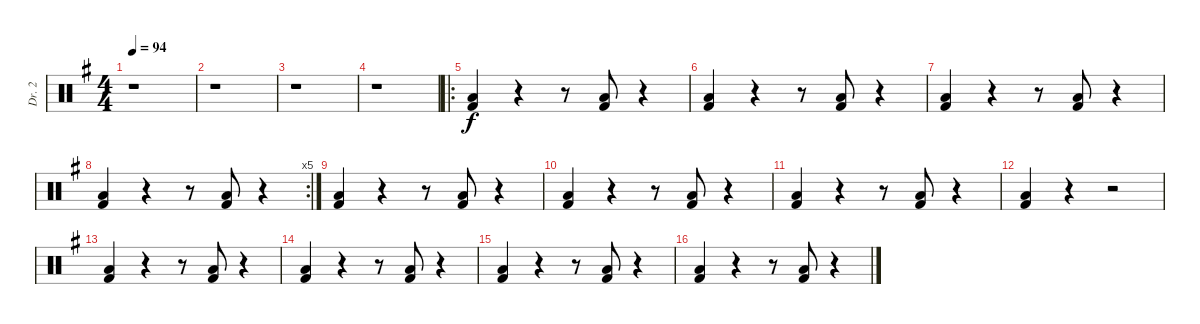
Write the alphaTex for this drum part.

\track ("Dr. 2" "Dr. 2") {instrument percussion}
\staff {score}
\articulation defaults
\ts (4 4)
\tempo 94
\clef neutral
\ks g
r.1{dy f volume 16} |
r.1 |
r.1 |
r.1 |
\ro
("Low Floor Tom (hit)" "Kick (hit) 2").4 r.4 r.8 ("Low Floor Tom (hit)" "Kick (hit) 2").8 r.4 |
("Low Floor Tom (hit)" "Kick (hit) 2").4 r.4 r.8 ("Low Floor Tom (hit)" "Kick (hit) 2").8 r.4 |
("Low Floor Tom (hit)" "Kick (hit) 2").4 r.4 r.8 ("Low Floor Tom (hit)" "Kick (hit) 2").8 r.4 |
\rc 5
("Low Floor Tom (hit)" "Kick (hit) 2").4 r.4 r.8 ("Low Floor Tom (hit)" "Kick (hit) 2").8 r.4 |
("Low Floor Tom (hit)" "Kick (hit) 2").4 r.4 r.8 ("Low Floor Tom (hit)" "Kick (hit) 2").8 r.4 |
("Low Floor Tom (hit)" "Kick (hit) 2").4 r.4 r.8 ("Low Floor Tom (hit)" "Kick (hit) 2").8 r.4 |
("Low Floor Tom (hit)" "Kick (hit) 2").4 r.4 r.8 ("Low Floor Tom (hit)" "Kick (hit) 2").8 r.4 |
("Low Floor Tom (hit)" "Kick (hit) 2").4 r.4 r.2 |
("Low Floor Tom (hit)" "Kick (hit) 2").4 r.4 r.8 ("Low Floor Tom (hit)" "Kick (hit) 2").8 r.4 |
("Low Floor Tom (hit)" "Kick (hit) 2").4 r.4 r.8 ("Low Floor Tom (hit)" "Kick (hit) 2").8 r.4 |
("Low Floor Tom (hit)" "Kick (hit) 2").4 r.4 r.8 ("Low Floor Tom (hit)" "Kick (hit) 2").8 r.4 |
("Low Floor Tom (hit)" "Kick (hit) 2").4 r.4 r.8 ("Low Floor Tom (hit)" "Kick (hit) 2").8 r.4
